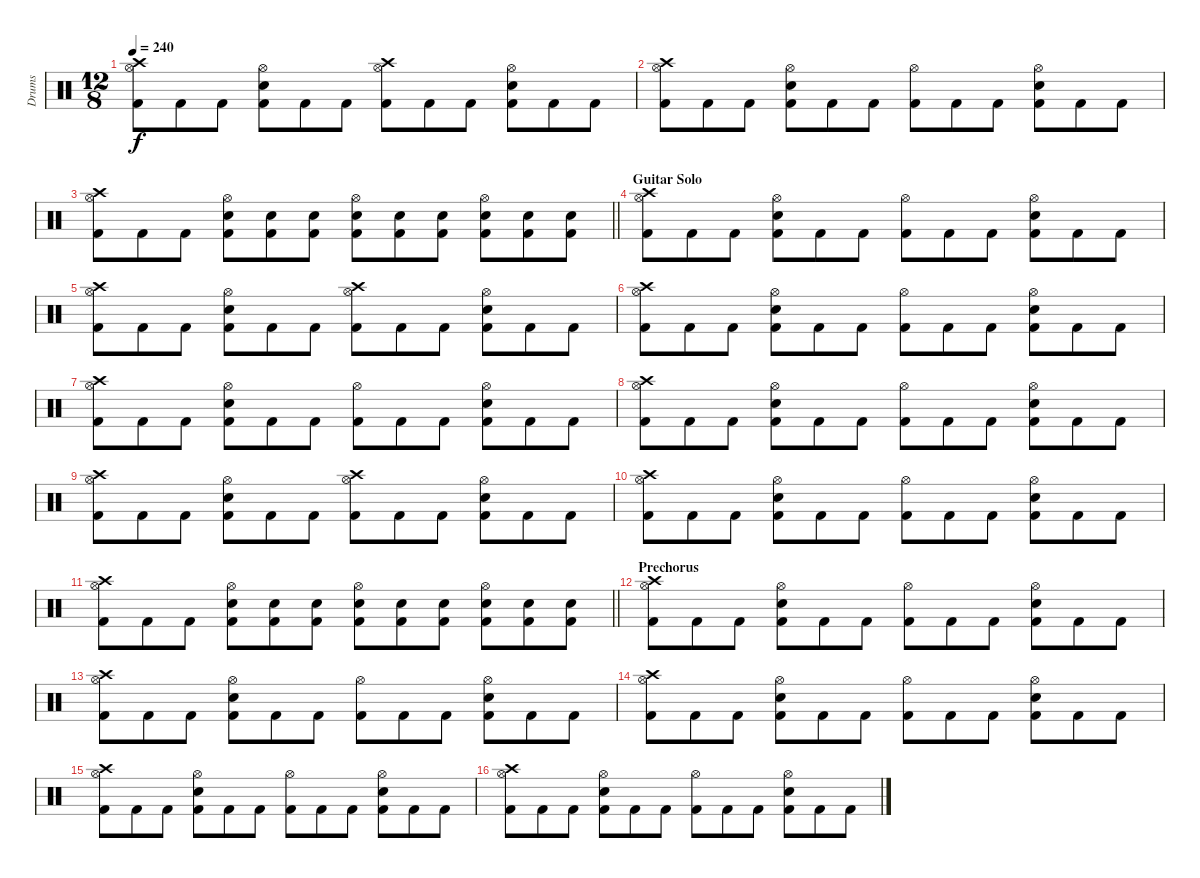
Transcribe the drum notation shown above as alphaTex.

\track ("Drums" "Drums") {instrument percussion}
\staff {score}
\articulation defaults
\ts (12 8)
\tempo 240
\clef neutral
\ks c
("Crash high (hit)" "Hi-Hat (open)" "Kick (hit) 2").8{dy f} "Kick (hit) 2".8 "Kick (hit) 2".8 ("Hi-Hat (open)" "Snare (hit) 2" "Kick (hit) 2").8 "Kick (hit) 2".8 "Kick (hit) 2".8 ("Crash high (hit)" "Hi-Hat (open)" "Kick (hit) 2").8 "Kick (hit) 2".8 "Kick (hit) 2".8 ("Hi-Hat (open)" "Snare (hit) 2" "Kick (hit) 2").8 "Kick (hit) 2".8 "Kick (hit) 2".8 |
("Crash high (hit)" "Hi-Hat (open)" "Kick (hit) 2").8 "Kick (hit) 2".8 "Kick (hit) 2".8 ("Hi-Hat (open)" "Snare (hit) 2" "Kick (hit) 2").8 "Kick (hit) 2".8 "Kick (hit) 2".8 ("Hi-Hat (open)" "Kick (hit) 2").8 "Kick (hit) 2".8 "Kick (hit) 2".8 ("Hi-Hat (open)" "Snare (hit) 2" "Kick (hit) 2").8 "Kick (hit) 2".8 "Kick (hit) 2".8 |
\barLineRight lightlight
("Crash high (hit)" "Hi-Hat (open)" "Kick (hit) 2").8 "Kick (hit) 2".8 "Kick (hit) 2".8 ("Hi-Hat (open)" "Snare (hit) 2" "Kick (hit) 2").8 ("Snare (hit) 2" "Kick (hit) 2").8 ("Snare (hit) 2" "Kick (hit) 2").8 ("Hi-Hat (open)" "Snare (hit) 2" "Kick (hit) 2").8 ("Snare (hit) 2" "Kick (hit) 2").8 ("Snare (hit) 2" "Kick (hit) 2").8 ("Hi-Hat (open)" "Snare (hit) 2" "Kick (hit) 2").8 ("Snare (hit) 2" "Kick (hit) 2").8 ("Snare (hit) 2" "Kick (hit) 2").8 |
\section ("" "Guitar Solo")
("Crash high (hit)" "Hi-Hat (open)" "Kick (hit) 2").8 "Kick (hit) 2".8 "Kick (hit) 2".8 ("Hi-Hat (open)" "Snare (hit) 2" "Kick (hit) 2").8 "Kick (hit) 2".8 "Kick (hit) 2".8 ("Hi-Hat (open)" "Kick (hit) 2").8 "Kick (hit) 2".8 "Kick (hit) 2".8 ("Hi-Hat (open)" "Snare (hit) 2" "Kick (hit) 2").8 "Kick (hit) 2".8 "Kick (hit) 2".8 |
("Crash high (hit)" "Hi-Hat (open)" "Kick (hit) 2").8 "Kick (hit) 2".8 "Kick (hit) 2".8 ("Hi-Hat (open)" "Snare (hit) 2" "Kick (hit) 2").8 "Kick (hit) 2".8 "Kick (hit) 2".8 ("Crash high (hit)" "Hi-Hat (open)" "Kick (hit) 2").8 "Kick (hit) 2".8 "Kick (hit) 2".8 ("Hi-Hat (open)" "Snare (hit) 2" "Kick (hit) 2").8 "Kick (hit) 2".8 "Kick (hit) 2".8 |
("Crash high (hit)" "Hi-Hat (open)" "Kick (hit) 2").8 "Kick (hit) 2".8 "Kick (hit) 2".8 ("Hi-Hat (open)" "Snare (hit) 2" "Kick (hit) 2").8 "Kick (hit) 2".8 "Kick (hit) 2".8 ("Hi-Hat (open)" "Kick (hit) 2").8 "Kick (hit) 2".8 "Kick (hit) 2".8 ("Hi-Hat (open)" "Snare (hit) 2" "Kick (hit) 2").8 "Kick (hit) 2".8 "Kick (hit) 2".8 |
("Crash high (hit)" "Hi-Hat (open)" "Kick (hit) 2").8 "Kick (hit) 2".8 "Kick (hit) 2".8 ("Hi-Hat (open)" "Snare (hit) 2" "Kick (hit) 2").8 "Kick (hit) 2".8 "Kick (hit) 2".8 ("Hi-Hat (open)" "Kick (hit) 2").8 "Kick (hit) 2".8 "Kick (hit) 2".8 ("Hi-Hat (open)" "Snare (hit) 2" "Kick (hit) 2").8 "Kick (hit) 2".8 "Kick (hit) 2".8 |
("Crash high (hit)" "Hi-Hat (open)" "Kick (hit) 2").8 "Kick (hit) 2".8 "Kick (hit) 2".8 ("Hi-Hat (open)" "Snare (hit) 2" "Kick (hit) 2").8 "Kick (hit) 2".8 "Kick (hit) 2".8 ("Hi-Hat (open)" "Kick (hit) 2").8 "Kick (hit) 2".8 "Kick (hit) 2".8 ("Hi-Hat (open)" "Snare (hit) 2" "Kick (hit) 2").8 "Kick (hit) 2".8 "Kick (hit) 2".8 |
("Crash high (hit)" "Hi-Hat (open)" "Kick (hit) 2").8 "Kick (hit) 2".8 "Kick (hit) 2".8 ("Hi-Hat (open)" "Snare (hit) 2" "Kick (hit) 2").8 "Kick (hit) 2".8 "Kick (hit) 2".8 ("Crash high (hit)" "Hi-Hat (open)" "Kick (hit) 2").8 "Kick (hit) 2".8 "Kick (hit) 2".8 ("Hi-Hat (open)" "Snare (hit) 2" "Kick (hit) 2").8 "Kick (hit) 2".8 "Kick (hit) 2".8 |
("Crash high (hit)" "Hi-Hat (open)" "Kick (hit) 2").8 "Kick (hit) 2".8 "Kick (hit) 2".8 ("Hi-Hat (open)" "Snare (hit) 2" "Kick (hit) 2").8 "Kick (hit) 2".8 "Kick (hit) 2".8 ("Hi-Hat (open)" "Kick (hit) 2").8 "Kick (hit) 2".8 "Kick (hit) 2".8 ("Hi-Hat (open)" "Snare (hit) 2" "Kick (hit) 2").8 "Kick (hit) 2".8 "Kick (hit) 2".8 |
\barLineRight lightlight
("Crash high (hit)" "Hi-Hat (open)" "Kick (hit) 2").8 "Kick (hit) 2".8 "Kick (hit) 2".8 ("Hi-Hat (open)" "Snare (hit) 2" "Kick (hit) 2").8 ("Snare (hit) 2" "Kick (hit) 2").8 ("Snare (hit) 2" "Kick (hit) 2").8 ("Hi-Hat (open)" "Snare (hit) 2" "Kick (hit) 2").8 ("Snare (hit) 2" "Kick (hit) 2").8 ("Snare (hit) 2" "Kick (hit) 2").8 ("Hi-Hat (open)" "Snare (hit) 2" "Kick (hit) 2").8 ("Snare (hit) 2" "Kick (hit) 2").8 ("Snare (hit) 2" "Kick (hit) 2").8 |
\section ("" "Prechorus")
("Crash high (hit)" "Hi-Hat (open)" "Kick (hit) 2").8 "Kick (hit) 2".8 "Kick (hit) 2".8 ("Hi-Hat (open)" "Snare (hit) 2" "Kick (hit) 2").8 "Kick (hit) 2".8 "Kick (hit) 2".8 ("Hi-Hat (open)" "Kick (hit) 2").8 "Kick (hit) 2".8 "Kick (hit) 2".8 ("Hi-Hat (open)" "Snare (hit) 2" "Kick (hit) 2").8 "Kick (hit) 2".8 "Kick (hit) 2".8 |
("Crash high (hit)" "Hi-Hat (open)" "Kick (hit) 2").8 "Kick (hit) 2".8 "Kick (hit) 2".8 ("Hi-Hat (open)" "Snare (hit) 2" "Kick (hit) 2").8 "Kick (hit) 2".8 "Kick (hit) 2".8 ("Hi-Hat (open)" "Kick (hit) 2").8 "Kick (hit) 2".8 "Kick (hit) 2".8 ("Hi-Hat (open)" "Snare (hit) 2" "Kick (hit) 2").8 "Kick (hit) 2".8 "Kick (hit) 2".8 |
("Crash high (hit)" "Hi-Hat (open)" "Kick (hit) 2").8 "Kick (hit) 2".8 "Kick (hit) 2".8 ("Hi-Hat (open)" "Snare (hit) 2" "Kick (hit) 2").8 "Kick (hit) 2".8 "Kick (hit) 2".8 ("Hi-Hat (open)" "Kick (hit) 2").8 "Kick (hit) 2".8 "Kick (hit) 2".8 ("Hi-Hat (open)" "Snare (hit) 2" "Kick (hit) 2").8 "Kick (hit) 2".8 "Kick (hit) 2".8 |
("Crash high (hit)" "Hi-Hat (open)" "Kick (hit) 2").8 "Kick (hit) 2".8 "Kick (hit) 2".8 ("Hi-Hat (open)" "Snare (hit) 2" "Kick (hit) 2").8 "Kick (hit) 2".8 "Kick (hit) 2".8 ("Hi-Hat (open)" "Kick (hit) 2").8 "Kick (hit) 2".8 "Kick (hit) 2".8 ("Hi-Hat (open)" "Snare (hit) 2" "Kick (hit) 2").8 "Kick (hit) 2".8 "Kick (hit) 2".8 |
("Crash high (hit)" "Hi-Hat (open)" "Kick (hit) 2").8 "Kick (hit) 2".8 "Kick (hit) 2".8 ("Hi-Hat (open)" "Snare (hit) 2" "Kick (hit) 2").8 "Kick (hit) 2".8 "Kick (hit) 2".8 ("Hi-Hat (open)" "Kick (hit) 2").8 "Kick (hit) 2".8 "Kick (hit) 2".8 ("Hi-Hat (open)" "Snare (hit) 2" "Kick (hit) 2").8 "Kick (hit) 2".8 "Kick (hit) 2".8
